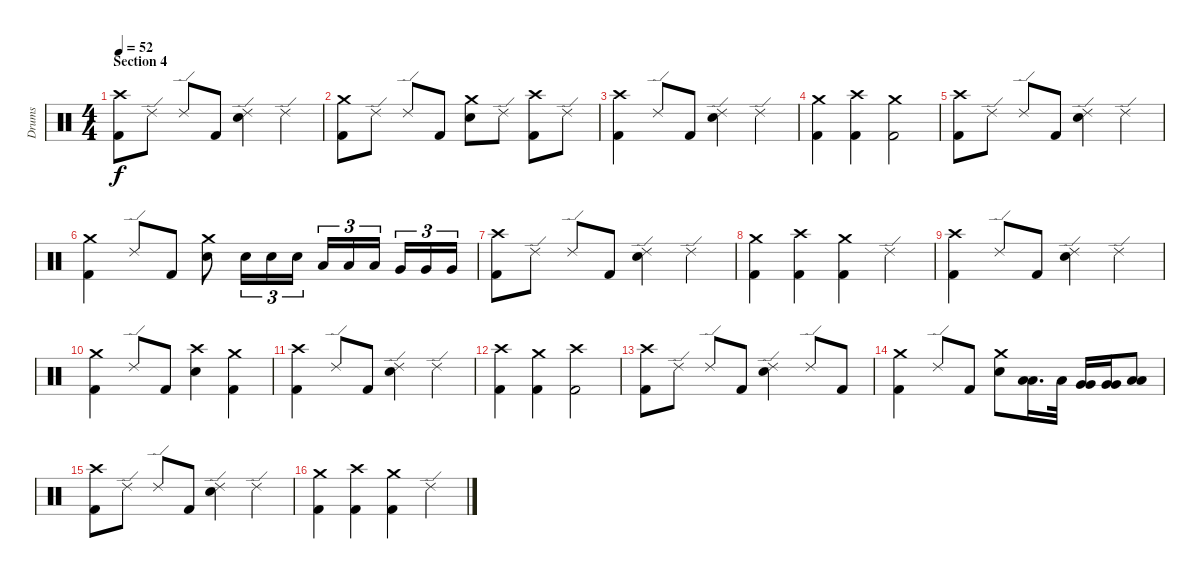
\track ("Drums" "Drums") {instrument percussion}
\staff {score}
\articulation defaults
\ts (4 4)
\section ("" "Section 4")
\tempo 52
\clef neutral
\ks c
("Crash high (hit)" "Kick (hit) 2").8{dy f} "Ride (edge) 2".8 "Ride (edge) 2".8 "Kick (hit) 2".8 ("Ride (edge) 2" "Electric Snare (hit)").4 "Ride (edge) 2".4 |
("Crash medium (hit)" "Kick (hit) 2").8 "Ride (edge) 2".8 "Ride (edge) 2".8 "Kick (hit) 2".8 ("Crash medium (hit)" "Electric Snare (hit)").8 "Ride (edge) 2".8 ("Crash high (hit)" "Kick (hit) 2").8 "Ride (edge) 2".8 |
("Crash high (hit)" "Kick (hit) 2").4 "Ride (edge) 2".8 "Kick (hit) 2".8 ("Ride (edge) 2" "Electric Snare (hit)").4 "Ride (edge) 2".4 |
("Crash medium (hit)" "Kick (hit) 2").4 ("Crash high (hit)" "Kick (hit) 2").4 ("Crash medium (hit)" "Kick (hit) 2").2 |
("Crash high (hit)" "Kick (hit) 2").8 "Ride (edge) 2".8 "Ride (edge) 2".8 "Kick (hit) 2".8 ("Ride (edge) 2" "Electric Snare (hit)").4 "Ride (edge) 2".4 |
("Crash medium (hit)" "Kick (hit) 2").4 "Ride (edge) 2".8 "Kick (hit) 2".8 ("Crash medium (hit)" "Electric Snare (hit)").8 "Electric Snare (hit)".16{tu (3 2)} "Electric Snare (hit)".16{tu (3 2)} "Electric Snare (hit)".16{tu (3 2)} "Low Floor Tom (hit)".16{tu (3 2)} "Low Floor Tom (hit)".16{tu (3 2)} "Low Floor Tom (hit)".16{tu (3 2) beam splitsecondary} "Very Low Tom (hit)".16{tu (3 2)} "Very Low Tom (hit)".16{tu (3 2)} "Very Low Tom (hit)".16{tu (3 2)} |
("Crash high (hit)" "Kick (hit) 2").8 "Ride (edge) 2".8 "Ride (edge) 2".8 "Kick (hit) 2".8 ("Ride (edge) 2" "Electric Snare (hit)").4 "Ride (edge) 2".4 |
("Crash medium (hit)" "Kick (hit) 2").4 ("Crash high (hit)" "Kick (hit) 2").4 ("Crash medium (hit)" "Kick (hit) 2").4 "Ride (edge) 2".4 |
("Crash high (hit)" "Kick (hit) 2").4 "Ride (edge) 2".8 "Kick (hit) 2".8 ("Ride (edge) 2" "Electric Snare (hit)").4 "Ride (edge) 2".4 |
("Crash medium (hit)" "Kick (hit) 2").4 "Ride (edge) 2".8 "Kick (hit) 2".8 ("Crash high (hit)" "Electric Snare (hit)").4 ("Crash medium (hit)" "Kick (hit) 2").4 |
("Crash high (hit)" "Kick (hit) 2").4 "Ride (edge) 2".8 "Kick (hit) 2".8 ("Ride (edge) 2" "Electric Snare (hit)").4 "Ride (edge) 2".4 |
("Crash high (hit)" "Kick (hit) 2").4 ("Crash medium (hit)" "Kick (hit) 2").4 ("Crash high (hit)" "Kick (hit) 2").2 |
("Crash high (hit)" "Kick (hit) 2").8 "Ride (edge) 2".8 "Ride (edge) 2".8 "Kick (hit) 2".8 ("Ride (edge) 2" "Electric Snare (hit)").4 "Ride (edge) 2".8 "Kick (hit) 2".8 |
("Crash medium (hit)" "Kick (hit) 2").4 "Ride (edge) 2".8 "Kick (hit) 2".8 ("Crash medium (hit)" "Electric Snare (hit)").8 ("Low Tom (hit)" "Low Tom (hit)").16{d} "Low Tom (hit)".32 ("Very Low Tom (hit)" "Very Low Tom (hit)").16 ("Very Low Tom (hit)" "Very Low Tom (hit)").16 ("Low Tom (hit)" "Low Tom (hit)").8 |
("Crash high (hit)" "Kick (hit) 2").8 "Ride (edge) 2".8 "Ride (edge) 2".8 "Kick (hit) 2".8 ("Ride (edge) 2" "Electric Snare (hit)").4 "Ride (edge) 2".4 |
("Crash medium (hit)" "Kick (hit) 2").4 ("Crash high (hit)" "Kick (hit) 2").4 ("Crash medium (hit)" "Kick (hit) 2").4 "Ride (edge) 2".4
